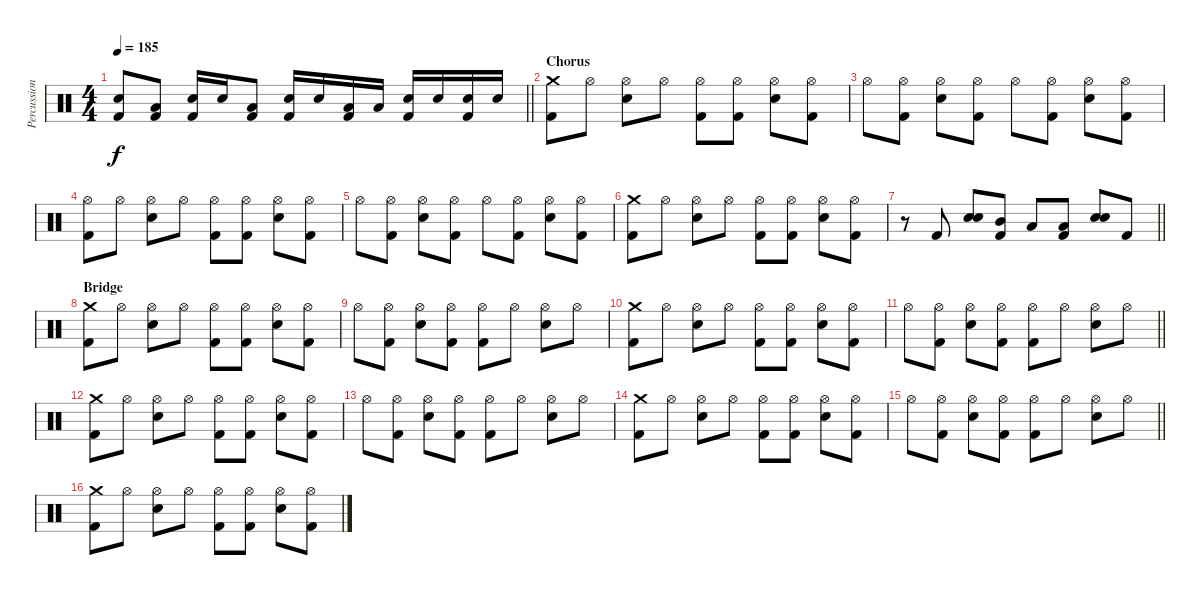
\track ("Percussion" "Percussion") {instrument percussion}
\staff {score}
\articulation defaults
\ts (4 4)
\tempo 185
\clef neutral
\barLineRight lightlight
\ks c
("Electric Snare (hit)" "Kick (hit) 2").8{dy f} ("Low Floor Tom (hit)" "Kick (hit) 2").8 ("Electric Snare (hit)" "Kick (hit) 2").16 "Electric Snare (hit)".16 ("Low Floor Tom (hit)" "Kick (hit) 2").8 ("Electric Snare (hit)" "Kick (hit) 2").16 "Electric Snare (hit)".16 ("Low Floor Tom (hit)" "Kick (hit) 2").16 "Low Floor Tom (hit)".16 ("Electric Snare (hit)" "Kick (hit) 2").16 "Electric Snare (hit)".16 ("Electric Snare (hit)" "Kick (hit) 2").16 "Electric Snare (hit)".16 |
\section ("" "Chorus")
("Crash medium (hit)" "Kick (hit) 2").8 "Hi-Hat (open)".8 ("Hi-Hat (open)" "Electric Snare (hit)").8 "Hi-Hat (open)".8 ("Hi-Hat (open)" "Kick (hit) 2").8 ("Hi-Hat (open)" "Kick (hit) 2").8 ("Hi-Hat (open)" "Electric Snare (hit)").8 ("Hi-Hat (open)" "Kick (hit) 2").8 |
"Hi-Hat (open)".8 ("Hi-Hat (open)" "Kick (hit) 2").8 ("Hi-Hat (open)" "Electric Snare (hit)").8 ("Hi-Hat (open)" "Kick (hit) 2").8 "Hi-Hat (open)".8 ("Hi-Hat (open)" "Kick (hit) 2").8 ("Hi-Hat (open)" "Electric Snare (hit)").8 ("Hi-Hat (open)" "Kick (hit) 2").8 |
("Hi-Hat (open)" "Kick (hit) 2").8 "Hi-Hat (open)".8 ("Hi-Hat (open)" "Electric Snare (hit)").8 "Hi-Hat (open)".8 ("Hi-Hat (open)" "Kick (hit) 2").8 ("Hi-Hat (open)" "Kick (hit) 2").8 ("Hi-Hat (open)" "Electric Snare (hit)").8 ("Hi-Hat (open)" "Kick (hit) 2").8 |
"Hi-Hat (open)".8 ("Hi-Hat (open)" "Kick (hit) 2").8 ("Hi-Hat (open)" "Electric Snare (hit)").8 ("Hi-Hat (open)" "Kick (hit) 2").8 "Hi-Hat (open)".8 ("Hi-Hat (open)" "Kick (hit) 2").8 ("Hi-Hat (open)" "Electric Snare (hit)").8 ("Hi-Hat (open)" "Kick (hit) 2").8 |
("Crash medium (hit)" "Kick (hit) 2").8 "Hi-Hat (open)".8 ("Hi-Hat (open)" "Electric Snare (hit)").8 "Hi-Hat (open)".8 ("Hi-Hat (open)" "Kick (hit) 2").8 ("Hi-Hat (open)" "Kick (hit) 2").8 ("Hi-Hat (open)" "Electric Snare (hit)").8 ("Hi-Hat (open)" "Kick (hit) 2").8 |
\barLineRight lightlight
r.8 "Kick (hit) 2".8 ("Electric Snare (hit)" "Electric Snare (hit)").8 ("Mid Tom (hit)" "Kick (hit) 2").8 "Low Floor Tom (hit)".8 ("Low Floor Tom (hit)" "Kick (hit) 2").8 ("Electric Snare (hit)" "Electric Snare (hit)").8 "Kick (hit) 2".8 |
\section ("" "Bridge")
("Crash medium (hit)" "Kick (hit) 2").8 "Hi-Hat (open)".8 ("Hi-Hat (open)" "Electric Snare (hit)").8 "Hi-Hat (open)".8 ("Hi-Hat (open)" "Kick (hit) 2").8 ("Hi-Hat (open)" "Kick (hit) 2").8 ("Hi-Hat (open)" "Electric Snare (hit)").8 ("Hi-Hat (open)" "Kick (hit) 2").8 |
"Hi-Hat (open)".8 ("Hi-Hat (open)" "Kick (hit) 2").8 ("Hi-Hat (open)" "Electric Snare (hit)").8 ("Hi-Hat (open)" "Kick (hit) 2").8 ("Hi-Hat (open)" "Kick (hit) 2").8 "Hi-Hat (open)".8 ("Hi-Hat (open)" "Electric Snare (hit)").8 "Hi-Hat (open)".8 |
("Crash medium (hit)" "Kick (hit) 2").8 "Hi-Hat (open)".8 ("Hi-Hat (open)" "Electric Snare (hit)").8 "Hi-Hat (open)".8 ("Hi-Hat (open)" "Kick (hit) 2").8 ("Hi-Hat (open)" "Kick (hit) 2").8 ("Hi-Hat (open)" "Electric Snare (hit)").8 ("Hi-Hat (open)" "Kick (hit) 2").8 |
\barLineRight lightlight "Hi-Hat (open)".8
("Hi-Hat (open)" "Kick (hit) 2").8 ("Hi-Hat (open)" "Electric Snare (hit)").8 ("Hi-Hat (open)" "Kick (hit) 2").8 ("Hi-Hat (open)" "Kick (hit) 2").8 "Hi-Hat (open)".8 ("Hi-Hat (open)" "Electric Snare (hit)").8 "Hi-Hat (open)".8 |
("Crash medium (hit)" "Kick (hit) 2").8 "Hi-Hat (open)".8 ("Hi-Hat (open)" "Electric Snare (hit)").8 "Hi-Hat (open)".8 ("Hi-Hat (open)" "Kick (hit) 2").8 ("Hi-Hat (open)" "Kick (hit) 2").8 ("Hi-Hat (open)" "Electric Snare (hit)").8 ("Hi-Hat (open)" "Kick (hit) 2").8 |
"Hi-Hat (open)".8 ("Hi-Hat (open)" "Kick (hit) 2").8 ("Hi-Hat (open)" "Electric Snare (hit)").8 ("Hi-Hat (open)" "Kick (hit) 2").8 ("Hi-Hat (open)" "Kick (hit) 2").8 "Hi-Hat (open)".8 ("Hi-Hat (open)" "Electric Snare (hit)").8 "Hi-Hat (open)".8 |
("Crash medium (hit)" "Kick (hit) 2").8 "Hi-Hat (open)".8 ("Hi-Hat (open)" "Electric Snare (hit)").8 "Hi-Hat (open)".8 ("Hi-Hat (open)" "Kick (hit) 2").8 ("Hi-Hat (open)" "Kick (hit) 2").8 ("Hi-Hat (open)" "Electric Snare (hit)").8 ("Hi-Hat (open)" "Kick (hit) 2").8 |
\barLineRight lightlight "Hi-Hat (open)".8
("Hi-Hat (open)" "Kick (hit) 2").8 ("Hi-Hat (open)" "Electric Snare (hit)").8 ("Hi-Hat (open)" "Kick (hit) 2").8 ("Hi-Hat (open)" "Kick (hit) 2").8 "Hi-Hat (open)".8 ("Hi-Hat (open)" "Electric Snare (hit)").8 "Hi-Hat (open)".8 |
("Crash medium (hit)" "Kick (hit) 2").8 "Hi-Hat (open)".8 ("Hi-Hat (open)" "Electric Snare (hit)").8 "Hi-Hat (open)".8 ("Hi-Hat (open)" "Kick (hit) 2").8 ("Hi-Hat (open)" "Kick (hit) 2").8 ("Hi-Hat (open)" "Electric Snare (hit)").8 ("Hi-Hat (open)" "Kick (hit) 2").8
